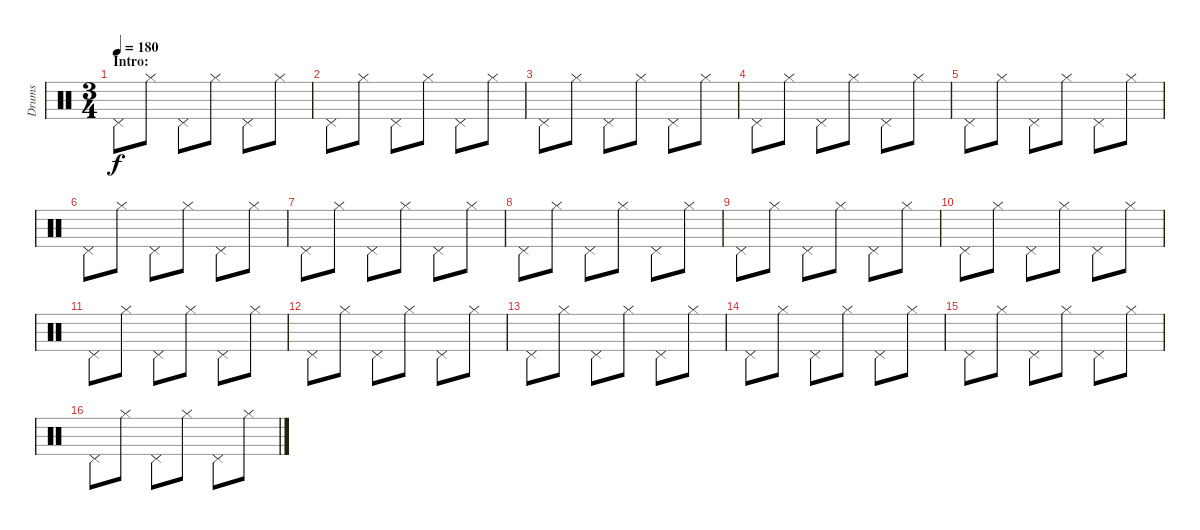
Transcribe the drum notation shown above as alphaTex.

\track ("Drums" "Drums") {instrument percussion}
\staff {score}
\articulation defaults
\ts (3 4)
\section ("" "Intro:")
\tempo 180
\tempo 145
\tempo 180
\clef neutral
\ks c "Pedal Hi-Hat (hit)".8{dy f} "Hi-Hat (closed)".8 "Pedal Hi-Hat (hit)".8 "Hi-Hat (closed)".8 "Pedal Hi-Hat (hit)".8 "Hi-Hat (closed)".8
|
"Pedal Hi-Hat (hit)".8 "Hi-Hat (closed)".8 "Pedal Hi-Hat (hit)".8 "Hi-Hat (closed)".8 "Pedal Hi-Hat (hit)".8 "Hi-Hat (closed)".8 |
"Pedal Hi-Hat (hit)".8 "Hi-Hat (closed)".8 "Pedal Hi-Hat (hit)".8 "Hi-Hat (closed)".8 "Pedal Hi-Hat (hit)".8 "Hi-Hat (closed)".8 |
"Pedal Hi-Hat (hit)".8 "Hi-Hat (closed)".8 "Pedal Hi-Hat (hit)".8 "Hi-Hat (closed)".8 "Pedal Hi-Hat (hit)".8 "Hi-Hat (closed)".8 |
"Pedal Hi-Hat (hit)".8 "Hi-Hat (closed)".8 "Pedal Hi-Hat (hit)".8 "Hi-Hat (closed)".8 "Pedal Hi-Hat (hit)".8 "Hi-Hat (closed)".8 |
"Pedal Hi-Hat (hit)".8 "Hi-Hat (closed)".8 "Pedal Hi-Hat (hit)".8 "Hi-Hat (closed)".8 "Pedal Hi-Hat (hit)".8 "Hi-Hat (closed)".8 |
"Pedal Hi-Hat (hit)".8 "Hi-Hat (closed)".8 "Pedal Hi-Hat (hit)".8 "Hi-Hat (closed)".8 "Pedal Hi-Hat (hit)".8 "Hi-Hat (closed)".8 |
"Pedal Hi-Hat (hit)".8 "Hi-Hat (closed)".8 "Pedal Hi-Hat (hit)".8 "Hi-Hat (closed)".8 "Pedal Hi-Hat (hit)".8 "Hi-Hat (closed)".8 |
"Pedal Hi-Hat (hit)".8 "Hi-Hat (closed)".8 "Pedal Hi-Hat (hit)".8 "Hi-Hat (closed)".8 "Pedal Hi-Hat (hit)".8 "Hi-Hat (closed)".8 |
"Pedal Hi-Hat (hit)".8 "Hi-Hat (closed)".8 "Pedal Hi-Hat (hit)".8 "Hi-Hat (closed)".8 "Pedal Hi-Hat (hit)".8 "Hi-Hat (closed)".8 |
"Pedal Hi-Hat (hit)".8 "Hi-Hat (closed)".8 "Pedal Hi-Hat (hit)".8 "Hi-Hat (closed)".8 "Pedal Hi-Hat (hit)".8 "Hi-Hat (closed)".8 |
"Pedal Hi-Hat (hit)".8 "Hi-Hat (closed)".8 "Pedal Hi-Hat (hit)".8 "Hi-Hat (closed)".8 "Pedal Hi-Hat (hit)".8 "Hi-Hat (closed)".8 |
"Pedal Hi-Hat (hit)".8 "Hi-Hat (closed)".8 "Pedal Hi-Hat (hit)".8 "Hi-Hat (closed)".8 "Pedal Hi-Hat (hit)".8 "Hi-Hat (closed)".8 |
"Pedal Hi-Hat (hit)".8 "Hi-Hat (closed)".8 "Pedal Hi-Hat (hit)".8 "Hi-Hat (closed)".8 "Pedal Hi-Hat (hit)".8 "Hi-Hat (closed)".8 |
"Pedal Hi-Hat (hit)".8 "Hi-Hat (closed)".8 "Pedal Hi-Hat (hit)".8 "Hi-Hat (closed)".8 "Pedal Hi-Hat (hit)".8 "Hi-Hat (closed)".8 |
"Pedal Hi-Hat (hit)".8 "Hi-Hat (closed)".8 "Pedal Hi-Hat (hit)".8 "Hi-Hat (closed)".8 "Pedal Hi-Hat (hit)".8 "Hi-Hat (closed)".8
